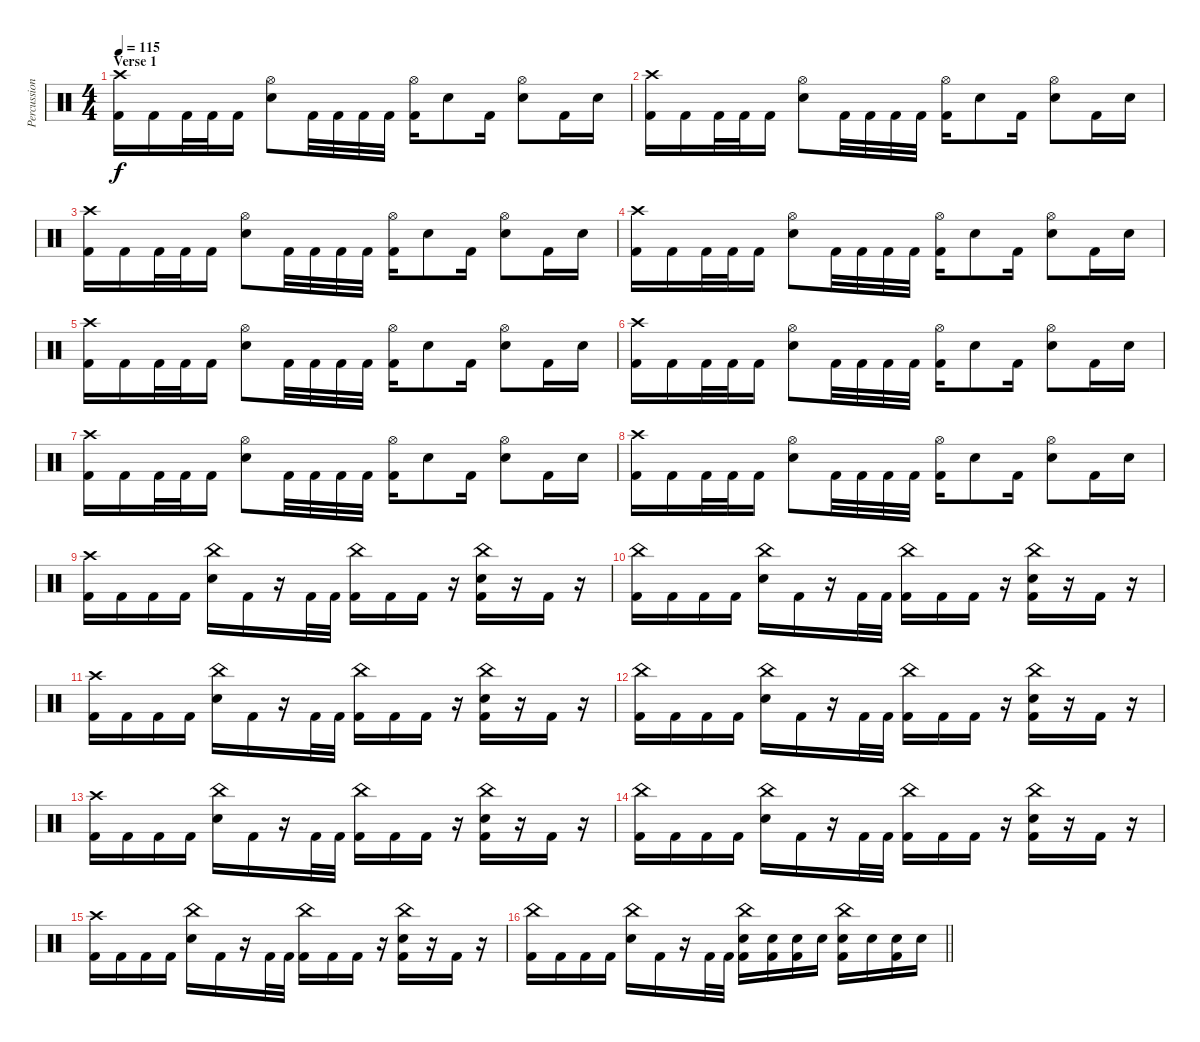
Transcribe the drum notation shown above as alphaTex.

\track ("Percussion" "Percussion") {instrument percussion}
\staff {score}
\articulation defaults
\ts (4 4)
\section ("" "Verse 1")
\tempo 115
\clef neutral
\ks c
("Crash high (hit)" "Kick (hit) 2").16{dy f} "Kick (hit) 2".16 "Kick (hit) 2".32 "Kick (hit) 2".32 "Kick (hit) 2".16 ("Hi-Hat (open)" "Snare (hit) 2").8 "Kick (hit) 2".32 "Kick (hit) 2".32 "Kick (hit) 2".32 "Kick (hit) 2".32 ("Hi-Hat (open)" "Kick (hit) 2").16 "Snare (hit) 2".8 "Kick (hit) 2".16 ("Hi-Hat (open)" "Snare (hit) 2").8 "Kick (hit) 2".16 "Snare (hit) 2".16 |
("Crash high (hit)" "Kick (hit) 2").16 "Kick (hit) 2".16 "Kick (hit) 2".32 "Kick (hit) 2".32 "Kick (hit) 2".16 ("Hi-Hat (open)" "Snare (hit) 2").8 "Kick (hit) 2".32 "Kick (hit) 2".32 "Kick (hit) 2".32 "Kick (hit) 2".32 ("Hi-Hat (open)" "Kick (hit) 2").16 "Snare (hit) 2".8 "Kick (hit) 2".16 ("Hi-Hat (open)" "Snare (hit) 2").8 "Kick (hit) 2".16 "Snare (hit) 2".16 |
("Crash high (hit)" "Kick (hit) 2").16 "Kick (hit) 2".16 "Kick (hit) 2".32 "Kick (hit) 2".32 "Kick (hit) 2".16 ("Hi-Hat (open)" "Snare (hit) 2").8 "Kick (hit) 2".32 "Kick (hit) 2".32 "Kick (hit) 2".32 "Kick (hit) 2".32 ("Hi-Hat (open)" "Kick (hit) 2").16 "Snare (hit) 2".8 "Kick (hit) 2".16 ("Hi-Hat (open)" "Snare (hit) 2").8 "Kick (hit) 2".16 "Snare (hit) 2".16 |
("Crash high (hit)" "Kick (hit) 2").16 "Kick (hit) 2".16 "Kick (hit) 2".32 "Kick (hit) 2".32 "Kick (hit) 2".16 ("Hi-Hat (open)" "Snare (hit) 2").8 "Kick (hit) 2".32 "Kick (hit) 2".32 "Kick (hit) 2".32 "Kick (hit) 2".32 ("Hi-Hat (open)" "Kick (hit) 2").16 "Snare (hit) 2".8 "Kick (hit) 2".16 ("Hi-Hat (open)" "Snare (hit) 2").8 "Kick (hit) 2".16 "Snare (hit) 2".16 |
("Crash high (hit)" "Kick (hit) 2").16 "Kick (hit) 2".16 "Kick (hit) 2".32 "Kick (hit) 2".32 "Kick (hit) 2".16 ("Hi-Hat (open)" "Snare (hit) 2").8 "Kick (hit) 2".32 "Kick (hit) 2".32 "Kick (hit) 2".32 "Kick (hit) 2".32 ("Hi-Hat (open)" "Kick (hit) 2").16 "Snare (hit) 2".8 "Kick (hit) 2".16 ("Hi-Hat (open)" "Snare (hit) 2").8 "Kick (hit) 2".16 "Snare (hit) 2".16 |
("Crash high (hit)" "Kick (hit) 2").16 "Kick (hit) 2".16 "Kick (hit) 2".32 "Kick (hit) 2".32 "Kick (hit) 2".16 ("Hi-Hat (open)" "Snare (hit) 2").8 "Kick (hit) 2".32 "Kick (hit) 2".32 "Kick (hit) 2".32 "Kick (hit) 2".32 ("Hi-Hat (open)" "Kick (hit) 2").16 "Snare (hit) 2".8 "Kick (hit) 2".16 ("Hi-Hat (open)" "Snare (hit) 2").8 "Kick (hit) 2".16 "Snare (hit) 2".16 |
("Crash high (hit)" "Kick (hit) 2").16 "Kick (hit) 2".16 "Kick (hit) 2".32 "Kick (hit) 2".32 "Kick (hit) 2".16 ("Hi-Hat (open)" "Snare (hit) 2").8 "Kick (hit) 2".32 "Kick (hit) 2".32 "Kick (hit) 2".32 "Kick (hit) 2".32 ("Hi-Hat (open)" "Kick (hit) 2").16 "Snare (hit) 2".8 "Kick (hit) 2".16 ("Hi-Hat (open)" "Snare (hit) 2").8 "Kick (hit) 2".16 "Snare (hit) 2".16 |
("Crash high (hit)" "Kick (hit) 2").16 "Kick (hit) 2".16 "Kick (hit) 2".32 "Kick (hit) 2".32 "Kick (hit) 2".16 ("Hi-Hat (open)" "Snare (hit) 2").8 "Kick (hit) 2".32 "Kick (hit) 2".32 "Kick (hit) 2".32 "Kick (hit) 2".32 ("Hi-Hat (open)" "Kick (hit) 2").16 "Snare (hit) 2".8 "Kick (hit) 2".16 ("Hi-Hat (open)" "Snare (hit) 2").8 "Kick (hit) 2".16 "Snare (hit) 2".16 |
("Crash high (hit)" "Kick (hit) 2").16 "Kick (hit) 2".16 "Kick (hit) 2".16 "Kick (hit) 2".16 ("China (hit)" "Snare (hit) 2").16 "Kick (hit) 2".16 r.16 "Kick (hit) 2".32 "Kick (hit) 2".32 ("China (hit)" "Kick (hit) 2").16 "Kick (hit) 2".16 "Kick (hit) 2".16 r.16 ("China (hit)" "Snare (hit) 2" "Kick (hit) 2").16 r.16 "Kick (hit) 2".16 r.16 |
("China (hit)" "Kick (hit) 2").16 "Kick (hit) 2".16 "Kick (hit) 2".16 "Kick (hit) 2".16 ("China (hit)" "Snare (hit) 2").16 "Kick (hit) 2".16 r.16 "Kick (hit) 2".32 "Kick (hit) 2".32 ("China (hit)" "Kick (hit) 2").16 "Kick (hit) 2".16 "Kick (hit) 2".16 r.16 ("China (hit)" "Snare (hit) 2" "Kick (hit) 2").16 r.16 "Kick (hit) 2".16 r.16 |
("Crash high (hit)" "Kick (hit) 2").16 "Kick (hit) 2".16 "Kick (hit) 2".16 "Kick (hit) 2".16 ("China (hit)" "Snare (hit) 2").16 "Kick (hit) 2".16 r.16 "Kick (hit) 2".32 "Kick (hit) 2".32 ("China (hit)" "Kick (hit) 2").16 "Kick (hit) 2".16 "Kick (hit) 2".16 r.16 ("China (hit)" "Snare (hit) 2" "Kick (hit) 2").16 r.16 "Kick (hit) 2".16 r.16 |
("China (hit)" "Kick (hit) 2").16 "Kick (hit) 2".16 "Kick (hit) 2".16 "Kick (hit) 2".16 ("China (hit)" "Snare (hit) 2").16 "Kick (hit) 2".16 r.16 "Kick (hit) 2".32 "Kick (hit) 2".32 ("China (hit)" "Kick (hit) 2").16 "Kick (hit) 2".16 "Kick (hit) 2".16 r.16 ("China (hit)" "Snare (hit) 2" "Kick (hit) 2").16 r.16 "Kick (hit) 2".16 r.16 |
("Crash high (hit)" "Kick (hit) 2").16 "Kick (hit) 2".16 "Kick (hit) 2".16 "Kick (hit) 2".16 ("China (hit)" "Snare (hit) 2").16 "Kick (hit) 2".16 r.16 "Kick (hit) 2".32 "Kick (hit) 2".32 ("China (hit)" "Kick (hit) 2").16 "Kick (hit) 2".16 "Kick (hit) 2".16 r.16 ("China (hit)" "Snare (hit) 2" "Kick (hit) 2").16 r.16 "Kick (hit) 2".16 r.16 |
("China (hit)" "Kick (hit) 2").16 "Kick (hit) 2".16 "Kick (hit) 2".16 "Kick (hit) 2".16 ("China (hit)" "Snare (hit) 2").16 "Kick (hit) 2".16 r.16 "Kick (hit) 2".32 "Kick (hit) 2".32 ("China (hit)" "Kick (hit) 2").16 "Kick (hit) 2".16 "Kick (hit) 2".16 r.16 ("China (hit)" "Snare (hit) 2" "Kick (hit) 2").16 r.16 "Kick (hit) 2".16 r.16 |
("Crash high (hit)" "Kick (hit) 2").16 "Kick (hit) 2".16 "Kick (hit) 2".16 "Kick (hit) 2".16 ("China (hit)" "Snare (hit) 2").16 "Kick (hit) 2".16 r.16 "Kick (hit) 2".32 "Kick (hit) 2".32 ("China (hit)" "Kick (hit) 2").16 "Kick (hit) 2".16 "Kick (hit) 2".16 r.16 ("China (hit)" "Snare (hit) 2" "Kick (hit) 2").16 r.16 "Kick (hit) 2".16 r.16 |
\barLineRight lightlight
("China (hit)" "Kick (hit) 2").16 "Kick (hit) 2".16 "Kick (hit) 2".16 "Kick (hit) 2".16 ("China (hit)" "Snare (hit) 2").16 "Kick (hit) 2".16 r.16 "Kick (hit) 2".32 "Kick (hit) 2".32 ("China (hit)" "Snare (hit) 2" "Kick (hit) 2").16 ("Snare (hit) 2" "Kick (hit) 2").16 ("Snare (hit) 2" "Kick (hit) 2").16 "Snare (hit) 2".16 ("China (hit)" "Snare (hit) 2" "Kick (hit) 2").16 "Snare (hit) 2".16 ("Snare (hit) 2" "Kick (hit) 2").16 "Snare (hit) 2".16
